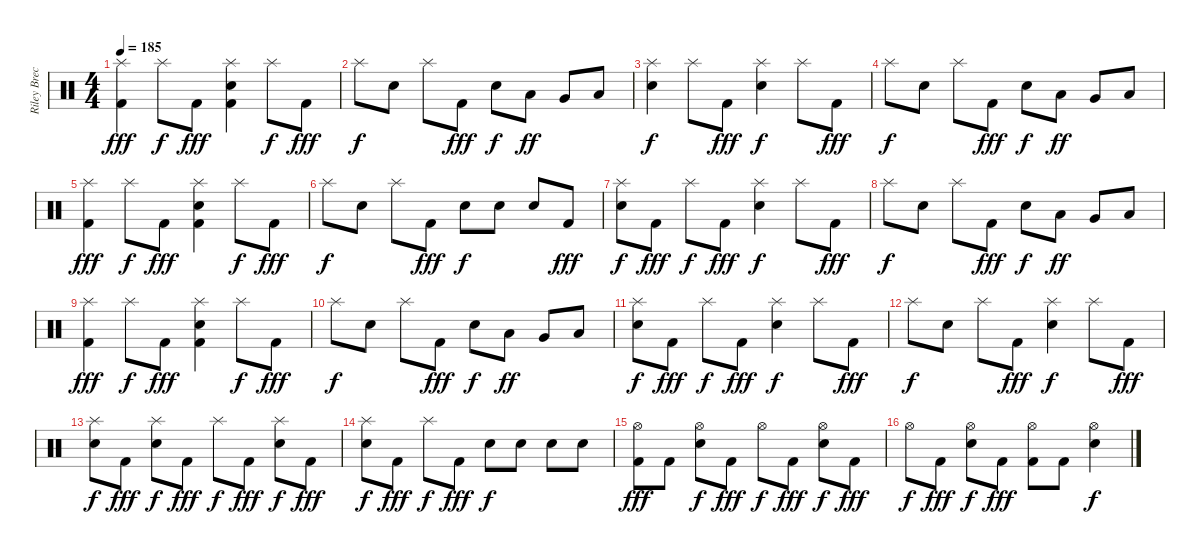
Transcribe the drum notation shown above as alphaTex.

\track ("Riley Breckenridge (Drums)" "Riley Brec") {instrument percussion}
\staff {score}
\articulation defaults
\ts (4 4)
\tempo 185
\clef neutral
\ks c
("Splash (hit)" "Kick (hit) 2").4{dy fff} "Splash (hit)".8{dy f} "Kick (hit) 2".8{dy fff} ("Splash (hit)" "Electric Snare (hit)" "Kick (hit) 2").4 "Splash (hit)".8{dy f} "Kick (hit) 2".8{dy fff} |
"Splash (hit)".8{dy f} "Electric Snare (hit)".8 "Splash (hit)".8 "Kick (hit) 2".8{dy fff} "Electric Snare (hit)".8{dy f} "Low Tom (hit)".8{dy ff} "Very Low Tom (hit)".8 "Low Floor Tom (hit)".8 |
("Splash (hit)" "Electric Snare (hit)").4{dy f} "Splash (hit)".8 "Kick (hit) 2".8{dy fff} ("Splash (hit)" "Electric Snare (hit)").4{dy f} "Splash (hit)".8 "Kick (hit) 2".8{dy fff} |
"Splash (hit)".8{dy f} "Electric Snare (hit)".8 "Splash (hit)".8 "Kick (hit) 2".8{dy fff} "Electric Snare (hit)".8{dy f} "Low Tom (hit)".8{dy ff} "Very Low Tom (hit)".8 "Low Floor Tom (hit)".8 |
("Splash (hit)" "Kick (hit) 2").4{dy fff} "Splash (hit)".8{dy f} "Kick (hit) 2".8{dy fff} ("Splash (hit)" "Electric Snare (hit)" "Kick (hit) 2").4 "Splash (hit)".8{dy f} "Kick (hit) 2".8{dy fff} |
"Splash (hit)".8{dy f} "Electric Snare (hit)".8 "Splash (hit)".8 "Kick (hit) 2".8{dy fff} "Electric Snare (hit)".8{dy f} "Electric Snare (hit)".8 "Electric Snare (hit)".8 "Kick (hit) 2".8{dy fff} |
("Splash (hit)" "Electric Snare (hit)").8{dy f} "Kick (hit) 2".8{dy fff} "Splash (hit)".8{dy f} "Kick (hit) 2".8{dy fff} ("Splash (hit)" "Electric Snare (hit)").4{dy f} "Splash (hit)".8 "Kick (hit) 2".8{dy fff} |
"Splash (hit)".8{dy f} "Electric Snare (hit)".8 "Splash (hit)".8 "Kick (hit) 2".8{dy fff} "Electric Snare (hit)".8{dy f} "Low Tom (hit)".8{dy ff} "Very Low Tom (hit)".8 "Low Floor Tom (hit)".8 |
("Splash (hit)" "Kick (hit) 2").4{dy fff} "Splash (hit)".8{dy f} "Kick (hit) 2".8{dy fff} ("Splash (hit)" "Electric Snare (hit)" "Kick (hit) 2").4 "Splash (hit)".8{dy f} "Kick (hit) 2".8{dy fff} |
"Splash (hit)".8{dy f} "Electric Snare (hit)".8 "Splash (hit)".8 "Kick (hit) 2".8{dy fff} "Electric Snare (hit)".8{dy f} "Low Tom (hit)".8{dy ff} "Very Low Tom (hit)".8 "Low Floor Tom (hit)".8 |
("Splash (hit)" "Electric Snare (hit)").8{dy f} "Kick (hit) 2".8{dy fff} "Splash (hit)".8{dy f} "Kick (hit) 2".8{dy fff} ("Splash (hit)" "Electric Snare (hit)").4{dy f} "Splash (hit)".8 "Kick (hit) 2".8{dy fff} |
"Splash (hit)".8{dy f} "Electric Snare (hit)".8 "Splash (hit)".8 "Kick (hit) 2".8{dy fff} ("Splash (hit)" "Electric Snare (hit)").4{dy f} "Splash (hit)".8 "Kick (hit) 2".8{dy fff} |
("Splash (hit)" "Electric Snare (hit)").8{dy f} "Kick (hit) 2".8{dy fff} ("Splash (hit)" "Electric Snare (hit)").8{dy f} "Kick (hit) 2".8{dy fff} "Splash (hit)".8{dy f} "Kick (hit) 2".8{dy fff} ("Splash (hit)" "Electric Snare (hit)").8{dy f} "Kick (hit) 2".8{dy fff} |
("Splash (hit)" "Electric Snare (hit)").8{dy f} "Kick (hit) 2".8{dy fff} "Splash (hit)".8{dy f} "Kick (hit) 2".8{dy fff} "Electric Snare (hit)".8{dy f} "Electric Snare (hit)".8 "Electric Snare (hit)".8 "Electric Snare (hit)".8 |
("Hi-Hat (open)" "Kick (hit) 2").8{dy fff} "Kick (hit) 2".8 ("Hi-Hat (open)" "Electric Snare (hit)").8{dy f} "Kick (hit) 2".8{dy fff} "Hi-Hat (open)".8{dy f} "Kick (hit) 2".8{dy fff} ("Hi-Hat (open)" "Electric Snare (hit)").8{dy f} "Kick (hit) 2".8{dy fff} |
"Hi-Hat (open)".8{dy f} "Kick (hit) 2".8{dy fff} ("Hi-Hat (open)" "Electric Snare (hit)").8{dy f} "Kick (hit) 2".8{dy fff} ("Hi-Hat (open)" "Kick (hit) 2").8 "Kick (hit) 2".8 ("Hi-Hat (open)" "Electric Snare (hit)").4{dy f}
